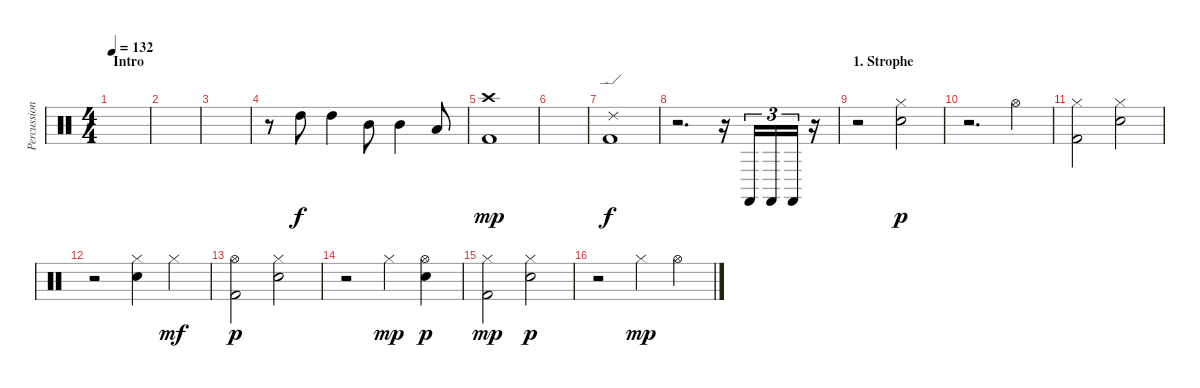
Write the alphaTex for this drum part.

\track ("Percussion" "Percussion") {instrument percussion}
\staff {score}
\articulation defaults
\ts (4 4)
\section ("" "Intro")
\tempo 132
\clef neutral
\ks c
|
|
|
r.8 "High Tom (hit)".8 "High Tom (hit)".4 "Mid Tom (hit)".8 "Mid Tom (hit)".4 "Low Tom (hit)".8 |
("Crash high (hit)" "Kick (hit) 2").1{dy mp} |
|
("Ride (edge) 2" "Kick (hit) 2").1{dy f} |
r.2{d} r.16 "Castanets (hit)".16{tu (3 2)} "Castanets (hit)".16{tu (3 2)} "Castanets (hit)".16{tu (3 2)} r.16 |
\section ("" "1. Strophe")
r.2 ("Hi-Hat (closed)" "Snare (hit) 2").2{dy p} |
r.2{d} "Hi-Hat (open)".4 |
("Hi-Hat (closed)" "Kick (hit) 2").2 ("Hi-Hat (closed)" "Snare (hit) 2").2 |
r.2 ("Hi-Hat (closed)" "Snare (hit) 2").4 "Hi-Hat (closed)".4{dy mf} |
("Hi-Hat (open)" "Kick (hit) 2").2{dy p} ("Hi-Hat (closed)" "Snare (hit) 2").2 |
r.2 "Hi-Hat (closed)".4{dy mp} ("Hi-Hat (open)" "Snare (hit) 2").4{dy p} |
("Hi-Hat (closed)" "Kick (hit) 2").2{dy mp} ("Hi-Hat (closed)" "Snare (hit) 2").2{dy p} |
r.2 "Hi-Hat (closed)".4{dy mp} "Hi-Hat (open)".4
